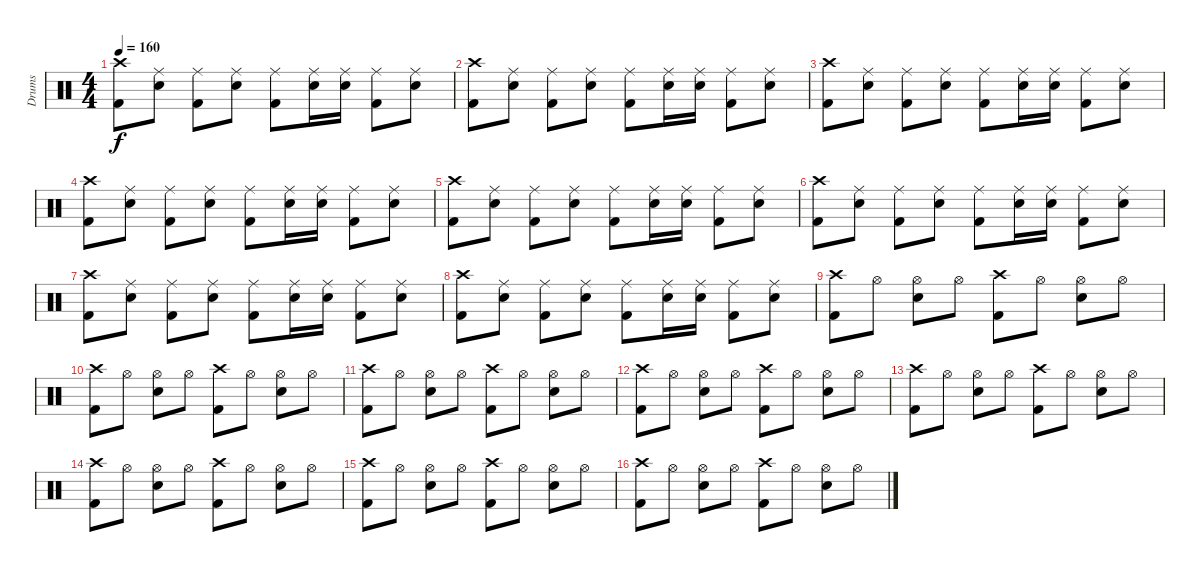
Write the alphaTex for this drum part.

\track ("Drums" "Drums") {instrument percussion}
\staff {score}
\articulation defaults
\ts (4 4)
\tempo 160
\clef neutral
\ks c
("Crash high (hit)" "Kick (hit) 2").8{dy f} ("Ride (middle)" "Snare (hit) 2").8 ("Ride (middle)" "Kick (hit) 2").8 ("Ride (middle)" "Snare (hit) 2").8 ("Ride (middle)" "Kick (hit) 2").8 ("Ride (middle)" "Snare (hit) 2").16 ("Ride (middle)" "Snare (hit) 2").16 ("Ride (middle)" "Kick (hit) 2").8 ("Ride (middle)" "Snare (hit) 2").8 |
("Crash high (hit)" "Kick (hit) 2").8 ("Ride (middle)" "Snare (hit) 2").8 ("Ride (middle)" "Kick (hit) 2").8 ("Ride (middle)" "Snare (hit) 2").8 ("Ride (middle)" "Kick (hit) 2").8 ("Ride (middle)" "Snare (hit) 2").16 ("Ride (middle)" "Snare (hit) 2").16 ("Ride (middle)" "Kick (hit) 2").8 ("Ride (middle)" "Snare (hit) 2").8 |
("Crash high (hit)" "Kick (hit) 2").8 ("Ride (middle)" "Snare (hit) 2").8 ("Ride (middle)" "Kick (hit) 2").8 ("Ride (middle)" "Snare (hit) 2").8 ("Ride (middle)" "Kick (hit) 2").8 ("Ride (middle)" "Snare (hit) 2").16 ("Ride (middle)" "Snare (hit) 2").16 ("Ride (middle)" "Kick (hit) 2").8 ("Ride (middle)" "Snare (hit) 2").8 |
("Crash high (hit)" "Kick (hit) 2").8 ("Ride (middle)" "Snare (hit) 2").8 ("Ride (middle)" "Kick (hit) 2").8 ("Ride (middle)" "Snare (hit) 2").8 ("Ride (middle)" "Kick (hit) 2").8 ("Ride (middle)" "Snare (hit) 2").16 ("Ride (middle)" "Snare (hit) 2").16 ("Ride (middle)" "Kick (hit) 2").8 ("Ride (middle)" "Snare (hit) 2").8 |
("Crash high (hit)" "Kick (hit) 2").8 ("Ride (middle)" "Snare (hit) 2").8 ("Ride (middle)" "Kick (hit) 2").8 ("Ride (middle)" "Snare (hit) 2").8 ("Ride (middle)" "Kick (hit) 2").8 ("Ride (middle)" "Snare (hit) 2").16 ("Ride (middle)" "Snare (hit) 2").16 ("Ride (middle)" "Kick (hit) 2").8 ("Ride (middle)" "Snare (hit) 2").8 |
("Crash high (hit)" "Kick (hit) 2").8 ("Ride (middle)" "Snare (hit) 2").8 ("Ride (middle)" "Kick (hit) 2").8 ("Ride (middle)" "Snare (hit) 2").8 ("Ride (middle)" "Kick (hit) 2").8 ("Ride (middle)" "Snare (hit) 2").16 ("Ride (middle)" "Snare (hit) 2").16 ("Ride (middle)" "Kick (hit) 2").8 ("Ride (middle)" "Snare (hit) 2").8 |
("Crash high (hit)" "Kick (hit) 2").8 ("Ride (middle)" "Snare (hit) 2").8 ("Ride (middle)" "Kick (hit) 2").8 ("Ride (middle)" "Snare (hit) 2").8 ("Ride (middle)" "Kick (hit) 2").8 ("Ride (middle)" "Snare (hit) 2").16 ("Ride (middle)" "Snare (hit) 2").16 ("Ride (middle)" "Kick (hit) 2").8 ("Ride (middle)" "Snare (hit) 2").8 |
("Crash high (hit)" "Kick (hit) 2").8 ("Ride (middle)" "Snare (hit) 2").8 ("Ride (middle)" "Kick (hit) 2").8 ("Ride (middle)" "Snare (hit) 2").8 ("Ride (middle)" "Kick (hit) 2").8 ("Ride (middle)" "Snare (hit) 2").16 ("Ride (middle)" "Snare (hit) 2").16 ("Ride (middle)" "Kick (hit) 2").8 ("Ride (middle)" "Snare (hit) 2").8 |
("Crash high (hit)" "Kick (hit) 2").8 "Hi-Hat (open)".8 ("Snare (hit) 2" "Hi-Hat (open)").8 "Hi-Hat (open)".8 ("Crash high (hit)" "Kick (hit) 2").8 "Hi-Hat (open)".8 ("Snare (hit) 2" "Hi-Hat (open)").8 "Hi-Hat (open)".8 |
("Crash high (hit)" "Kick (hit) 2").8 "Hi-Hat (open)".8 ("Snare (hit) 2" "Hi-Hat (open)").8 "Hi-Hat (open)".8 ("Crash high (hit)" "Kick (hit) 2").8 "Hi-Hat (open)".8 ("Snare (hit) 2" "Hi-Hat (open)").8 "Hi-Hat (open)".8 |
("Crash high (hit)" "Kick (hit) 2").8 "Hi-Hat (open)".8 ("Snare (hit) 2" "Hi-Hat (open)").8 "Hi-Hat (open)".8 ("Crash high (hit)" "Kick (hit) 2").8 "Hi-Hat (open)".8 ("Snare (hit) 2" "Hi-Hat (open)").8 "Hi-Hat (open)".8 |
("Crash high (hit)" "Kick (hit) 2").8 "Hi-Hat (open)".8 ("Snare (hit) 2" "Hi-Hat (open)").8 "Hi-Hat (open)".8 ("Crash high (hit)" "Kick (hit) 2").8 "Hi-Hat (open)".8 ("Snare (hit) 2" "Hi-Hat (open)").8 "Hi-Hat (open)".8 |
("Crash high (hit)" "Kick (hit) 2").8 "Hi-Hat (open)".8 ("Snare (hit) 2" "Hi-Hat (open)").8 "Hi-Hat (open)".8 ("Crash high (hit)" "Kick (hit) 2").8 "Hi-Hat (open)".8 ("Snare (hit) 2" "Hi-Hat (open)").8 "Hi-Hat (open)".8 |
("Crash high (hit)" "Kick (hit) 2").8 "Hi-Hat (open)".8 ("Snare (hit) 2" "Hi-Hat (open)").8 "Hi-Hat (open)".8 ("Crash high (hit)" "Kick (hit) 2").8 "Hi-Hat (open)".8 ("Snare (hit) 2" "Hi-Hat (open)").8 "Hi-Hat (open)".8 |
("Crash high (hit)" "Kick (hit) 2").8 "Hi-Hat (open)".8 ("Snare (hit) 2" "Hi-Hat (open)").8 "Hi-Hat (open)".8 ("Crash high (hit)" "Kick (hit) 2").8 "Hi-Hat (open)".8 ("Snare (hit) 2" "Hi-Hat (open)").8 "Hi-Hat (open)".8 |
("Crash high (hit)" "Kick (hit) 2").8 "Hi-Hat (open)".8 ("Snare (hit) 2" "Hi-Hat (open)").8 "Hi-Hat (open)".8 ("Crash high (hit)" "Kick (hit) 2").8 "Hi-Hat (open)".8 ("Snare (hit) 2" "Hi-Hat (open)").8 "Hi-Hat (open)".8
